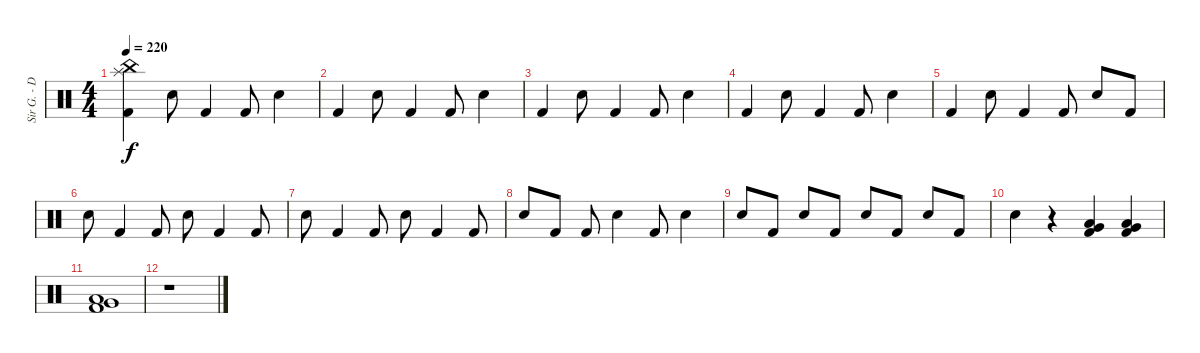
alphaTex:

\track ("Sir G. - Drums" "Sir G. - D") {instrument percussion}
\staff {score}
\articulation defaults
\ts (4 4)
\tempo 220
\clef neutral
\ks c
("China (hit)" "Splash (hit)" "Kick (hit) 2").4{dy f} "Snare (hit) 2".8 "Kick (hit) 2".4 "Kick (hit) 2".8 "Snare (hit) 2".4 |
"Kick (hit) 2".4 "Snare (hit) 2".8 "Kick (hit) 2".4 "Kick (hit) 2".8 "Snare (hit) 2".4 |
"Kick (hit) 2".4 "Snare (hit) 2".8 "Kick (hit) 2".4 "Kick (hit) 2".8 "Snare (hit) 2".4 |
"Kick (hit) 2".4 "Snare (hit) 2".8 "Kick (hit) 2".4 "Kick (hit) 2".8 "Snare (hit) 2".4 |
"Kick (hit) 2".4 "Snare (hit) 2".8 "Kick (hit) 2".4 "Kick (hit) 2".8 "Snare (hit) 2".8 "Kick (hit) 2".8 |
"Snare (hit) 2".8 "Kick (hit) 2".4 "Kick (hit) 2".8 "Snare (hit) 2".8 "Kick (hit) 2".4 "Kick (hit) 2".8 |
"Snare (hit) 2".8 "Kick (hit) 2".4 "Kick (hit) 2".8 "Snare (hit) 2".8 "Kick (hit) 2".4 "Kick (hit) 2".8 |
"Snare (hit) 2".8 "Kick (hit) 2".8 "Kick (hit) 2".8 "Snare (hit) 2".4 "Kick (hit) 2".8 "Snare (hit) 2".4 |
"Snare (hit) 2".8 "Kick (hit) 2".8 "Snare (hit) 2".8 "Kick (hit) 2".8 "Snare (hit) 2".8 "Kick (hit) 2".8 "Snare (hit) 2".8 "Kick (hit) 2".8 |
"Snare (hit) 2".4 r.4 ("Very Low Tom (hit)" "Low Tom (hit)" "Kick (hit) 2").4 ("Very Low Tom (hit)" "Low Tom (hit)" "Kick (hit) 2").4 |
("Very Low Tom (hit)" "Low Floor Tom (hit)" "Kick (hit) 2").1 |
r.1
